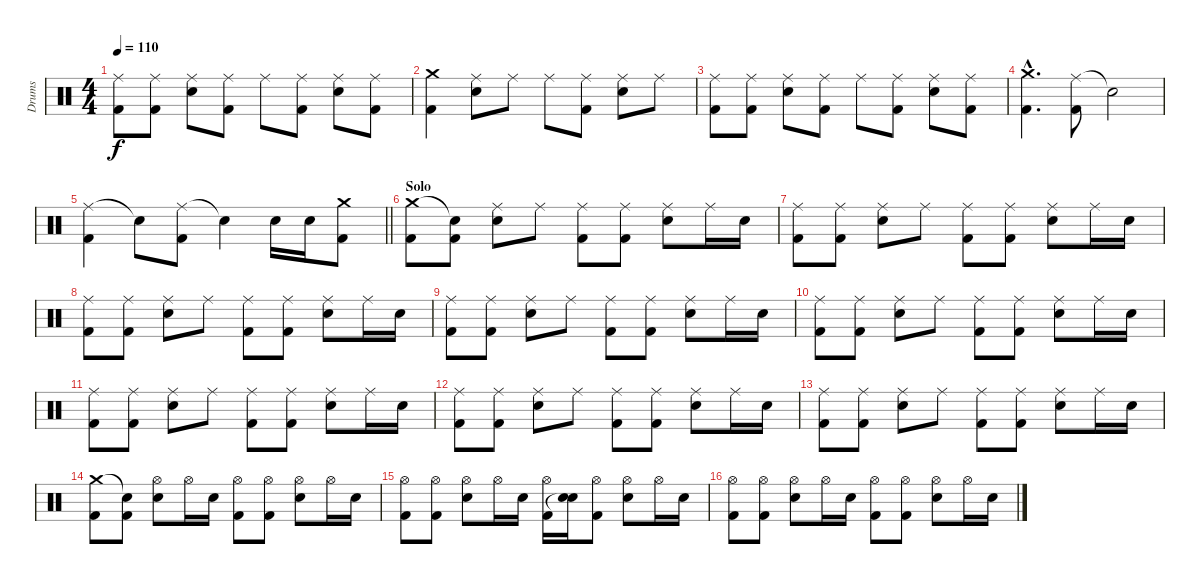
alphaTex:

\track ("Drums" "Drums") {instrument percussion}
\staff {score}
\articulation defaults
\ts (4 4)
\tempo 110
\clef neutral
\ks c
("Ride (middle)" "Kick (hit) 2").8{dy f} ("Ride (middle)" "Kick (hit) 2").8 ("Ride (middle)" "Electric Snare (hit)").8 ("Ride (middle)" "Kick (hit) 2").8 "Ride (middle)".8 ("Ride (middle)" "Kick (hit) 2").8 ("Ride (middle)" "Electric Snare (hit)").8 ("Ride (middle)" "Kick (hit) 2").8 |
("Crash medium (hit)" "Kick (hit) 2").4 ("Ride (middle)" "Electric Snare (hit)").8 "Ride (middle)".8 "Ride (middle)".8 ("Ride (middle)" "Kick (hit) 2").8 ("Ride (middle)" "Electric Snare (hit)").8 "Ride (middle)".8 |
("Ride (middle)" "Kick (hit) 2").8 ("Ride (middle)" "Kick (hit) 2").8 ("Ride (middle)" "Electric Snare (hit)").8 ("Ride (middle)" "Kick (hit) 2").8 "Ride (middle)".8 ("Ride (middle)" "Kick (hit) 2").8 ("Ride (middle)" "Electric Snare (hit)").8 ("Ride (middle)" "Kick (hit) 2").8 |
("Crash medium (hit)"{hac} "Kick (hit) 2"{hac}).4{d} ("Ride (middle)" "Kick (hit) 2").8 "Snare (hit)"{t}.2 |
\barLineRight lightlight
("Ride (middle)" "Kick (hit) 2").4 "Snare (hit)"{t}.8 ("Ride (middle)" "Kick (hit) 2").8 "Snare (hit)"{t}.4 "Electric Snare (hit)".16 "Electric Snare (hit)".16 ("Crash medium (hit)" "Kick (hit) 2").8 |
\section ("" "Solo")
("Crash medium (hit)" "Kick (hit) 2").8 ("Snare (hit)"{t} "Kick (hit) 2").8 ("Ride (middle)" "Electric Snare (hit)").8 "Ride (middle)".8 ("Ride (middle)" "Kick (hit) 2").8 ("Ride (middle)" "Kick (hit) 2").8 ("Ride (middle)" "Electric Snare (hit)").8 "Ride (middle)".16 "Electric Snare (hit)".16 |
("Ride (middle)" "Kick (hit) 2").8 ("Ride (middle)" "Kick (hit) 2").8 ("Ride (middle)" "Electric Snare (hit)").8 "Ride (middle)".8 ("Ride (middle)" "Kick (hit) 2").8 ("Ride (middle)" "Kick (hit) 2").8 ("Ride (middle)" "Electric Snare (hit)").8 "Ride (middle)".16 "Electric Snare (hit)".16 |
("Ride (middle)" "Kick (hit) 2").8 ("Ride (middle)" "Kick (hit) 2").8 ("Ride (middle)" "Electric Snare (hit)").8 "Ride (middle)".8 ("Ride (middle)" "Kick (hit) 2").8 ("Ride (middle)" "Kick (hit) 2").8 ("Ride (middle)" "Electric Snare (hit)").8 "Ride (middle)".16 "Electric Snare (hit)".16 |
("Ride (middle)" "Kick (hit) 2").8 ("Ride (middle)" "Kick (hit) 2").8 ("Ride (middle)" "Electric Snare (hit)").8 "Ride (middle)".8 ("Ride (middle)" "Kick (hit) 2").8 ("Ride (middle)" "Kick (hit) 2").8 ("Ride (middle)" "Electric Snare (hit)").8 "Ride (middle)".16 "Electric Snare (hit)".16 |
("Ride (middle)" "Kick (hit) 2").8 ("Ride (middle)" "Kick (hit) 2").8 ("Ride (middle)" "Electric Snare (hit)").8 "Ride (middle)".8 ("Ride (middle)" "Kick (hit) 2").8 ("Ride (middle)" "Kick (hit) 2").8 ("Ride (middle)" "Electric Snare (hit)").8 "Ride (middle)".16 "Electric Snare (hit)".16 |
("Ride (middle)" "Kick (hit) 2").8 ("Ride (middle)" "Kick (hit) 2").8 ("Ride (middle)" "Electric Snare (hit)").8 "Ride (middle)".8 ("Ride (middle)" "Kick (hit) 2").8 ("Ride (middle)" "Kick (hit) 2").8 ("Ride (middle)" "Electric Snare (hit)").8 "Ride (middle)".16 "Electric Snare (hit)".16 |
("Ride (middle)" "Kick (hit) 2").8 ("Ride (middle)" "Kick (hit) 2").8 ("Ride (middle)" "Electric Snare (hit)").8 "Ride (middle)".8 ("Ride (middle)" "Kick (hit) 2").8 ("Ride (middle)" "Kick (hit) 2").8 ("Ride (middle)" "Electric Snare (hit)").8 "Ride (middle)".16 "Electric Snare (hit)".16 |
("Ride (middle)" "Kick (hit) 2").8 ("Ride (middle)" "Kick (hit) 2").8 ("Ride (middle)" "Electric Snare (hit)").8 "Ride (middle)".8 ("Ride (middle)" "Kick (hit) 2").8 ("Ride (middle)" "Kick (hit) 2").8 ("Ride (middle)" "Electric Snare (hit)").8 "Ride (middle)".16 "Electric Snare (hit)".16 |
("Crash medium (hit)" "Kick (hit) 2").8 ("Snare (hit)"{t} "Kick (hit) 2").8 ("Hi-Hat (open)" "Electric Snare (hit)").8 "Hi-Hat (open)".16 "Electric Snare (hit)".16 ("Hi-Hat (open)" "Kick (hit) 2").8 ("Hi-Hat (open)" "Kick (hit) 2").8 ("Hi-Hat (open)" "Electric Snare (hit)").8 "Hi-Hat (open)".16 "Electric Snare (hit)".16 |
("Hi-Hat (open)" "Kick (hit) 2").8 ("Hi-Hat (open)" "Kick (hit) 2").8 ("Hi-Hat (open)" "Electric Snare (hit)").8 "Hi-Hat (open)".16 "Electric Snare (hit)".16 ("Hi-Hat (open)" "Kick (hit) 2").16 ("Electric Snare (hit)" "Snare (hit)"{t}).16 ("Hi-Hat (open)" "Kick (hit) 2").8 ("Hi-Hat (open)" "Electric Snare (hit)").8 "Hi-Hat (open)".16 "Electric Snare (hit)".16 |
("Hi-Hat (open)" "Kick (hit) 2").8 ("Hi-Hat (open)" "Kick (hit) 2").8 ("Hi-Hat (open)" "Electric Snare (hit)").8 "Hi-Hat (open)".16 "Electric Snare (hit)".16 ("Hi-Hat (open)" "Kick (hit) 2").8 ("Hi-Hat (open)" "Kick (hit) 2").8 ("Hi-Hat (open)" "Electric Snare (hit)").8 "Hi-Hat (open)".16 "Electric Snare (hit)".16
